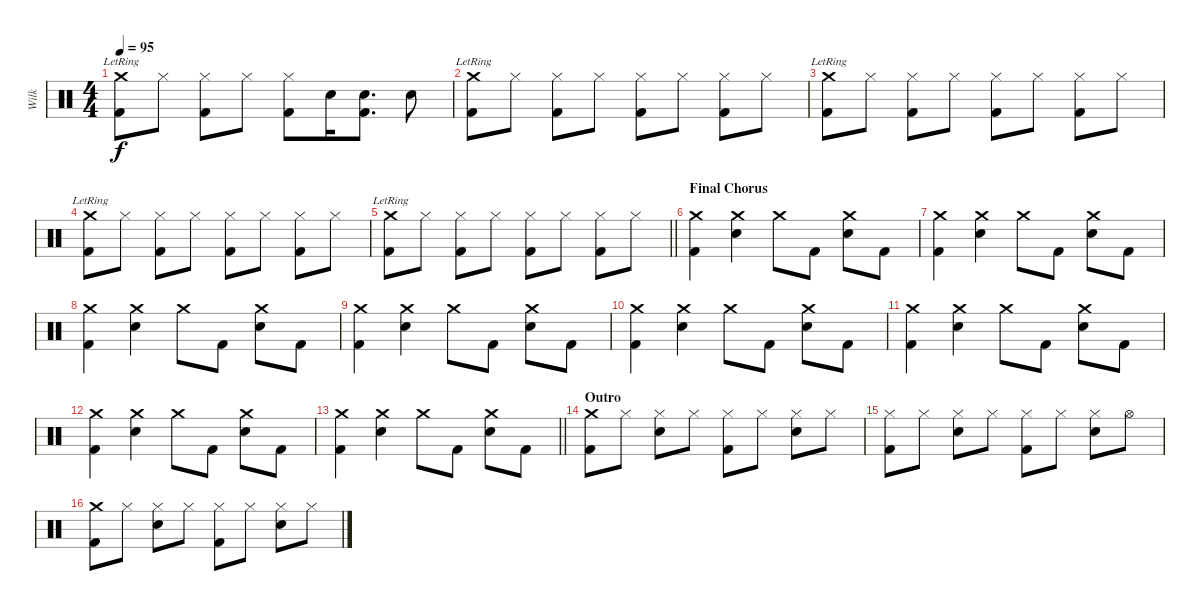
\track ("Wilk" "Wilk") {instrument percussion}
\staff {score}
\articulation defaults
\ts (4 4)
\tempo 95
\clef neutral
\ks c
("Crash medium (hit)"{lr} "Kick (hit) 2").8{dy f} "Hi-Hat (closed)".8 ("Hi-Hat (closed)" "Kick (hit) 2").8 "Hi-Hat (closed)".8 ("Hi-Hat (closed)" "Kick (hit) 2").8 "Electric Snare (hit)".16 ("Electric Snare (hit)" "Kick (hit) 2").8{d} "Electric Snare (hit)".8 |
("Crash medium (hit)"{lr} "Kick (hit) 2").8 "Hi-Hat (closed)".8 ("Hi-Hat (closed)" "Kick (hit) 2").8 "Hi-Hat (closed)".8 ("Hi-Hat (closed)" "Kick (hit) 2").8 "Hi-Hat (closed)".8 ("Hi-Hat (closed)" "Kick (hit) 2").8 "Hi-Hat (closed)".8 |
("Crash medium (hit)"{lr} "Kick (hit) 2").8 "Hi-Hat (closed)".8 ("Hi-Hat (closed)" "Kick (hit) 2").8 "Hi-Hat (closed)".8 ("Hi-Hat (closed)" "Kick (hit) 2").8 "Hi-Hat (closed)".8 ("Hi-Hat (closed)" "Kick (hit) 2").8 "Hi-Hat (closed)".8 |
("Crash medium (hit)"{lr} "Kick (hit) 2").8 "Hi-Hat (closed)".8 ("Hi-Hat (closed)" "Kick (hit) 2").8 "Hi-Hat (closed)".8 ("Hi-Hat (closed)" "Kick (hit) 2").8 "Hi-Hat (closed)".8 ("Hi-Hat (closed)" "Kick (hit) 2").8 "Hi-Hat (closed)".8 |
\barLineRight lightlight
("Crash medium (hit)"{lr} "Kick (hit) 2").8 "Hi-Hat (closed)".8 ("Hi-Hat (closed)" "Kick (hit) 2").8 "Hi-Hat (closed)".8 ("Hi-Hat (closed)" "Kick (hit) 2").8 "Hi-Hat (closed)".8 ("Hi-Hat (closed)" "Kick (hit) 2").8 "Hi-Hat (closed)".8 |
\section ("" "Final Chorus")
("Crash medium (hit)" "Kick (hit) 2").4 ("Crash medium (hit)" "Snare (hit) 2").4 "Crash medium (hit)".8 "Kick (hit) 2".8 ("Crash medium (hit)" "Snare (hit) 2").8 "Kick (hit) 2".8 |
("Crash medium (hit)" "Kick (hit) 2").4 ("Crash medium (hit)" "Snare (hit) 2").4 "Crash medium (hit)".8 "Kick (hit) 2".8 ("Crash medium (hit)" "Snare (hit) 2").8 "Kick (hit) 2".8 |
("Crash medium (hit)" "Kick (hit) 2").4 ("Crash medium (hit)" "Snare (hit) 2").4 "Crash medium (hit)".8 "Kick (hit) 2".8 ("Crash medium (hit)" "Snare (hit) 2").8 "Kick (hit) 2".8 |
("Crash medium (hit)" "Kick (hit) 2").4 ("Crash medium (hit)" "Snare (hit) 2").4 "Crash medium (hit)".8 "Kick (hit) 2".8 ("Crash medium (hit)" "Snare (hit) 2").8 "Kick (hit) 2".8 |
("Crash medium (hit)" "Kick (hit) 2").4 ("Crash medium (hit)" "Snare (hit) 2").4 "Crash medium (hit)".8 "Kick (hit) 2".8 ("Crash medium (hit)" "Snare (hit) 2").8 "Kick (hit) 2".8 |
("Crash medium (hit)" "Kick (hit) 2").4 ("Crash medium (hit)" "Snare (hit) 2").4 "Crash medium (hit)".8 "Kick (hit) 2".8 ("Crash medium (hit)" "Snare (hit) 2").8 "Kick (hit) 2".8 |
("Crash medium (hit)" "Kick (hit) 2").4 ("Crash medium (hit)" "Snare (hit) 2").4 "Crash medium (hit)".8 "Kick (hit) 2".8 ("Crash medium (hit)" "Snare (hit) 2").8 "Kick (hit) 2".8 |
\barLineRight lightlight
("Crash medium (hit)" "Kick (hit) 2").4 ("Crash medium (hit)" "Snare (hit) 2").4 "Crash medium (hit)".8 "Kick (hit) 2".8 ("Crash medium (hit)" "Snare (hit) 2").8 "Kick (hit) 2".8 |
\section ("" "Outro")
("Crash medium (hit)" "Kick (hit) 2").8 "Hi-Hat (closed)".8 ("Hi-Hat (closed)" "Snare (hit) 2").8 "Hi-Hat (closed)".8 ("Hi-Hat (closed)" "Kick (hit) 2").8 "Hi-Hat (closed)".8 ("Hi-Hat (closed)" "Snare (hit) 2").8 "Hi-Hat (closed)".8 |
("Hi-Hat (closed)" "Kick (hit) 2").8 "Hi-Hat (closed)".8 ("Hi-Hat (closed)" "Snare (hit) 2").8 "Hi-Hat (closed)".8 ("Hi-Hat (closed)" "Kick (hit) 2").8 "Hi-Hat (closed)".8 ("Hi-Hat (closed)" "Snare (hit) 2").8 "Hi-Hat (open)".8 |
("Crash medium (hit)" "Kick (hit) 2").8 "Hi-Hat (closed)".8 ("Hi-Hat (closed)" "Snare (hit) 2").8 "Hi-Hat (closed)".8 ("Hi-Hat (closed)" "Kick (hit) 2").8 "Hi-Hat (closed)".8 ("Hi-Hat (closed)" "Snare (hit) 2").8 "Hi-Hat (closed)".8
